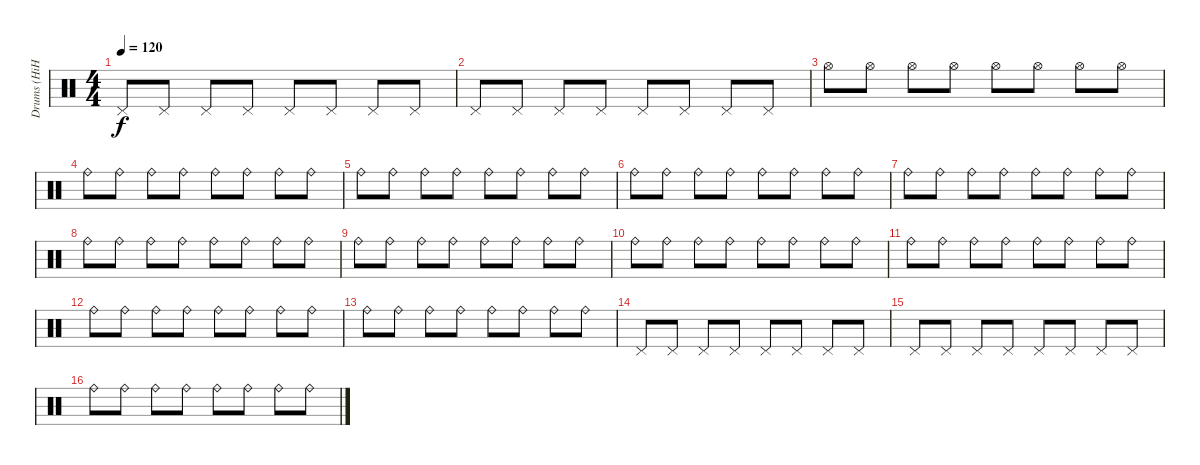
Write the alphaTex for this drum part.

\track ("Drums (HiHat)" "Drums (HiH") {instrument percussion}
\staff {score}
\articulation defaults
\ts (4 4)
\tempo 120
\clef neutral
\ks c "Pedal Hi-Hat (hit)".8{dy f} "Pedal Hi-Hat (hit)".8 "Pedal Hi-Hat (hit)".8 "Pedal Hi-Hat (hit)".8 "Pedal Hi-Hat (hit)".8 "Pedal Hi-Hat (hit)".8 "Pedal Hi-Hat (hit)".8 "Pedal Hi-Hat (hit)".8
|
"Pedal Hi-Hat (hit)".8 "Pedal Hi-Hat (hit)".8 "Pedal Hi-Hat (hit)".8 "Pedal Hi-Hat (hit)".8 "Pedal Hi-Hat (hit)".8 "Pedal Hi-Hat (hit)".8 "Pedal Hi-Hat (hit)".8 "Pedal Hi-Hat (hit)".8 |
"Hi-Hat (open)".8 "Hi-Hat (open)".8 "Hi-Hat (open)".8 "Hi-Hat (open)".8 "Hi-Hat (open)".8 "Hi-Hat (open)".8 "Hi-Hat (open)".8 "Hi-Hat (open)".8 |
"Ride (bell)".8 "Ride (bell)".8 "Ride (bell)".8 "Ride (bell)".8 "Ride (bell)".8 "Ride (bell)".8 "Ride (bell)".8 "Ride (bell)".8 |
"Ride (bell)".8 "Ride (bell)".8 "Ride (bell)".8 "Ride (bell)".8 "Ride (bell)".8 "Ride (bell)".8 "Ride (bell)".8 "Ride (bell)".8 |
"Ride (bell)".8 "Ride (bell)".8 "Ride (bell)".8 "Ride (bell)".8 "Ride (bell)".8 "Ride (bell)".8 "Ride (bell)".8 "Ride (bell)".8 |
"Ride (bell)".8 "Ride (bell)".8 "Ride (bell)".8 "Ride (bell)".8 "Ride (bell)".8 "Ride (bell)".8 "Ride (bell)".8 "Ride (bell)".8 |
"Ride (bell)".8 "Ride (bell)".8 "Ride (bell)".8 "Ride (bell)".8 "Ride (bell)".8 "Ride (bell)".8 "Ride (bell)".8 "Ride (bell)".8 |
"Ride (bell)".8 "Ride (bell)".8 "Ride (bell)".8 "Ride (bell)".8 "Ride (bell)".8 "Ride (bell)".8 "Ride (bell)".8 "Ride (bell)".8 |
"Ride (bell)".8 "Ride (bell)".8 "Ride (bell)".8 "Ride (bell)".8 "Ride (bell)".8 "Ride (bell)".8 "Ride (bell)".8 "Ride (bell)".8 |
"Ride (bell)".8 "Ride (bell)".8 "Ride (bell)".8 "Ride (bell)".8 "Ride (bell)".8 "Ride (bell)".8 "Ride (bell)".8 "Ride (bell)".8 |
"Ride (bell)".8 "Ride (bell)".8 "Ride (bell)".8 "Ride (bell)".8 "Ride (bell)".8 "Ride (bell)".8 "Ride (bell)".8 "Ride (bell)".8 |
"Ride (bell)".8 "Ride (bell)".8 "Ride (bell)".8 "Ride (bell)".8 "Ride (bell)".8 "Ride (bell)".8 "Ride (bell)".8 "Ride (bell)".8 |
"Pedal Hi-Hat (hit)".8 "Pedal Hi-Hat (hit)".8 "Pedal Hi-Hat (hit)".8 "Pedal Hi-Hat (hit)".8 "Pedal Hi-Hat (hit)".8 "Pedal Hi-Hat (hit)".8 "Pedal Hi-Hat (hit)".8 "Pedal Hi-Hat (hit)".8 |
"Pedal Hi-Hat (hit)".8 "Pedal Hi-Hat (hit)".8 "Pedal Hi-Hat (hit)".8 "Pedal Hi-Hat (hit)".8 "Pedal Hi-Hat (hit)".8 "Pedal Hi-Hat (hit)".8 "Pedal Hi-Hat (hit)".8 "Pedal Hi-Hat (hit)".8 |
"Ride (bell)".8 "Ride (bell)".8 "Ride (bell)".8 "Ride (bell)".8 "Ride (bell)".8 "Ride (bell)".8 "Ride (bell)".8 "Ride (bell)".8
